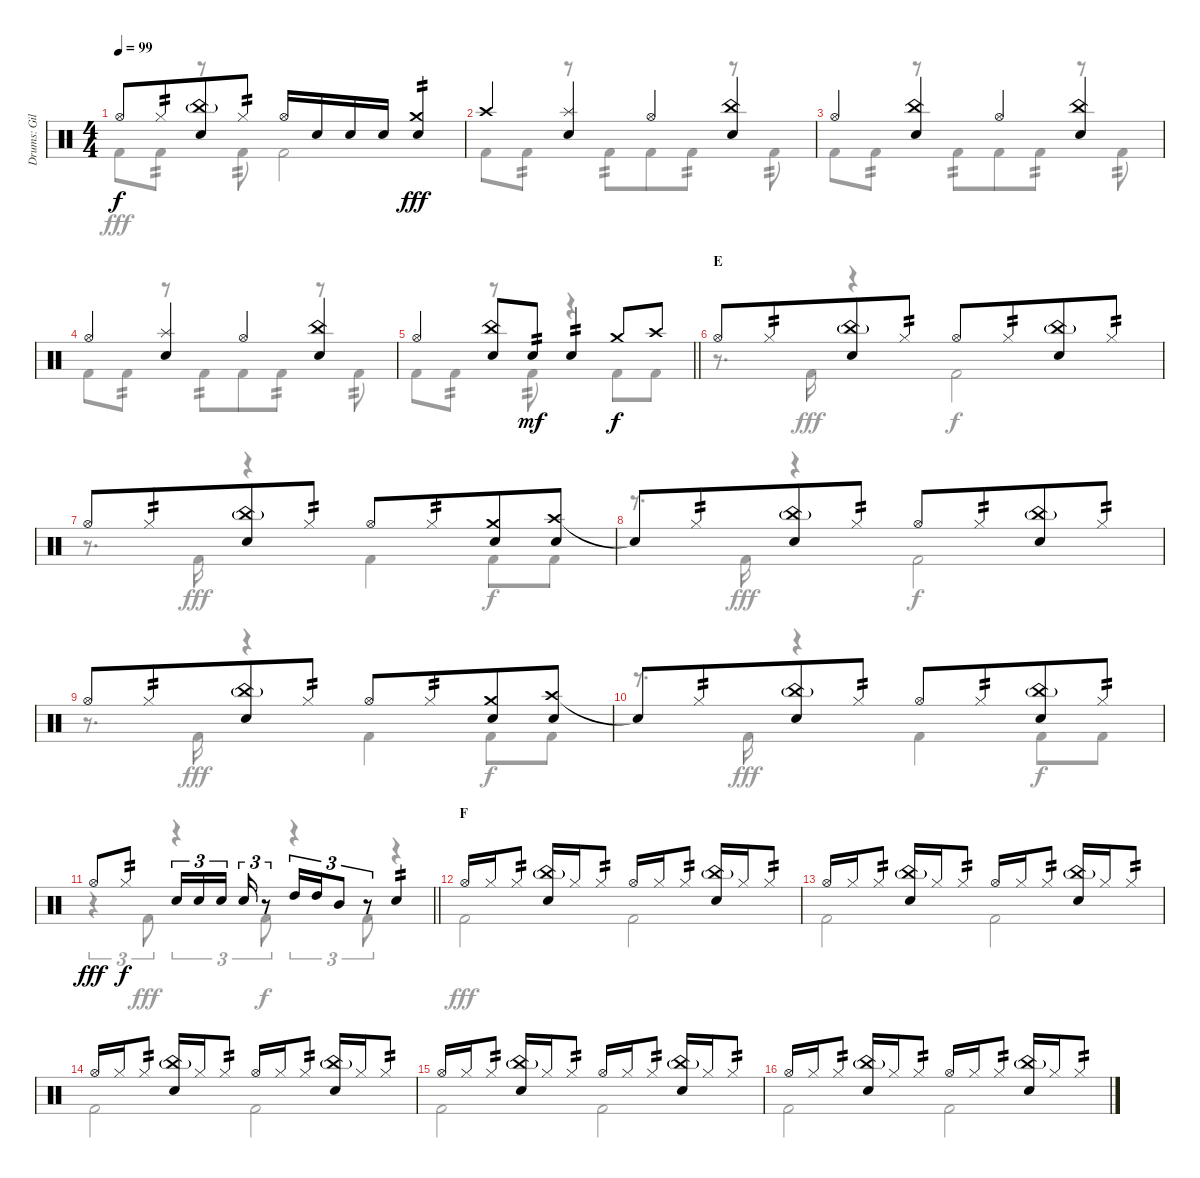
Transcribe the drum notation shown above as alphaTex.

\track ("Drums: Gil" "Drums: Gil") {instrument percussion}
\staff {score}
\articulation defaults
\voice
\ts (4 4)
\tempo 99
\clef neutral
\ks c "Hi-Hat (open)".8{dy f beam merge} "Hi-Hat (closed)".8{tp 2 beam merge}
("China (hit)"{g} "Snare (hit) 2").8{beam merge} "Hi-Hat (closed)".8{tp 2} "Hi-Hat (open)".16 "Snare (hit) 2".16 "Snare (hit) 2".16 "Snare (hit) 2".16 ("Crash medium (hit)" "Snare (hit) 2").4{tp 2 dy fff} |
"Crash high (hit)".4 ("Splash (hit)" "Snare (hit) 2").4 "Hi-Hat (open)".4 ("China (hit)" "Snare (hit) 2").4 |
"Hi-Hat (open)".4 ("China (hit)" "Snare (hit) 2").4 "Hi-Hat (open)".4 ("China (hit)" "Snare (hit) 2").4 |
"Hi-Hat (open)".4 ("Splash (hit)" "Snare (hit) 2").4 "Hi-Hat (open)".4 ("China (hit)" "Snare (hit) 2").4 |
\barLineRight lightlight "Hi-Hat (open)".4
("China (hit)" "Snare (hit) 2").8 "Snare (hit) 2".8{tp 2 dy mf beam merge} "Snare (hit) 2".4{tp 2} "Crash medium (hit)".8{dy f} "Crash high (hit)".8 |
\section ("" "E")
"Hi-Hat (open)".8 "Hi-Hat (closed)".8{tp 2 beam merge} ("China (hit)"{g} "Snare (hit) 2").8 "Hi-Hat (closed)".8{tp 2} "Hi-Hat (open)".8 "Hi-Hat (closed)".8{tp 2 beam merge} ("China (hit)"{g} "Snare (hit) 2").8 "Hi-Hat (closed)".8{tp 2} |
"Hi-Hat (open)".8 "Hi-Hat (closed)".8{tp 2 beam merge} ("China (hit)"{g} "Snare (hit) 2").8 "Hi-Hat (closed)".8{tp 2} "Hi-Hat (open)".8 "Hi-Hat (closed)".8{tp 2 beam merge} ("Crash medium (hit)" "Snare (hit) 2").8 ("Crash high (hit)" "Snare (hit) 2").8 |
"Snare (hit)"{t}.8 "Hi-Hat (closed)".8{tp 2 beam merge} ("China (hit)"{g} "Snare (hit) 2").8 "Hi-Hat (closed)".8{tp 2} "Hi-Hat (open)".8 "Hi-Hat (closed)".8{tp 2 beam merge} ("China (hit)"{g} "Snare (hit) 2").8 "Hi-Hat (closed)".8{tp 2} |
"Hi-Hat (open)".8 "Hi-Hat (closed)".8{tp 2 beam merge} ("China (hit)"{g} "Snare (hit) 2").8 "Hi-Hat (closed)".8{tp 2} "Hi-Hat (open)".8 "Hi-Hat (closed)".8{tp 2 beam merge} ("Crash medium (hit)" "Snare (hit) 2").8 ("Crash high (hit)" "Snare (hit) 2").8 |
"Snare (hit)"{t}.8 "Hi-Hat (closed)".8{tp 2 beam merge} ("China (hit)"{g} "Snare (hit) 2").8 "Hi-Hat (closed)".8{tp 2} "Hi-Hat (open)".8 "Hi-Hat (closed)".8{tp 2 beam merge} ("China (hit)"{g} "Snare (hit) 2").8 "Hi-Hat (closed)".8{tp 2} |
\barLineRight lightlight "Hi-Hat (open)".8{dy fff} "Hi-Hat (closed)".8{tp 2 dy f} "Electric Snare (hit)".16{tu (3 2)} "Electric Snare (hit)".16{tu (3 2)} "Electric Snare (hit)".16{tu (3 2) beam splitsecondary} "Electric Snare (hit)".16{tu (3 2)}
r.8{tu (3 2)} "High Tom (hit)".16{tu (3 2)} "High Tom (hit)".16{tu (3 2)} "Mid Tom (hit)".8{tu (3 2)} r.8{tu (3 2)} "Electric Snare (hit)".4{tp 2} |
\section ("" "F")
"Hi-Hat (open)".16 "Hi-Hat (closed)".16 "Hi-Hat (closed)".8{tp 2} ("China (hit)"{g} "Snare (hit) 2").16 "Hi-Hat (closed)".16 "Hi-Hat (closed)".8{tp 2} "Hi-Hat (open)".16 "Hi-Hat (closed)".16 "Hi-Hat (closed)".8{tp 2} ("China (hit)"{g} "Snare (hit) 2").16 "Hi-Hat (closed)".16 "Hi-Hat (closed)".8{tp 2} |
"Hi-Hat (open)".16 "Hi-Hat (closed)".16 "Hi-Hat (closed)".8{tp 2} ("China (hit)"{g} "Snare (hit) 2").16 "Hi-Hat (closed)".16 "Hi-Hat (closed)".8{tp 2} "Hi-Hat (open)".16 "Hi-Hat (closed)".16 "Hi-Hat (closed)".8{tp 2} ("China (hit)"{g} "Snare (hit) 2").16 "Hi-Hat (closed)".16 "Hi-Hat (closed)".8{tp 2} |
"Hi-Hat (open)".16 "Hi-Hat (closed)".16 "Hi-Hat (closed)".8{tp 2} ("China (hit)"{g} "Snare (hit) 2").16 "Hi-Hat (closed)".16 "Hi-Hat (closed)".8{tp 2} "Hi-Hat (open)".16 "Hi-Hat (closed)".16 "Hi-Hat (closed)".8{tp 2} ("China (hit)"{g} "Snare (hit) 2").16 "Hi-Hat (closed)".16 "Hi-Hat (closed)".8{tp 2} |
"Hi-Hat (open)".16 "Hi-Hat (closed)".16 "Hi-Hat (closed)".8{tp 2} ("China (hit)"{g} "Snare (hit) 2").16 "Hi-Hat (closed)".16 "Hi-Hat (closed)".8{tp 2} "Hi-Hat (open)".16 "Hi-Hat (closed)".16 "Hi-Hat (closed)".8{tp 2} ("China (hit)"{g} "Snare (hit) 2").16 "Hi-Hat (closed)".16 "Hi-Hat (closed)".8{tp 2} |
"Hi-Hat (open)".16 "Hi-Hat (closed)".16 "Hi-Hat (closed)".8{tp 2} ("China (hit)"{g} "Snare (hit) 2").16 "Hi-Hat (closed)".16 "Hi-Hat (closed)".8{tp 2} "Hi-Hat (open)".16 "Hi-Hat (closed)".16 "Hi-Hat (closed)".8{tp 2} ("China (hit)"{g} "Snare (hit) 2").16 "Hi-Hat (closed)".16 "Hi-Hat (closed)".8{tp 2}
\voice
\clef neutral
\ottava regular
\simile none
\ks c "Kick (hit) 2".8{dy fff} "Kick (hit) 2".8{tp 2}
r.8 "Kick (hit) 2".8{tp 2} "Kick (hit) 2".2 |
"Kick (hit) 2".8 "Kick (hit) 2".8{tp 2} r.8 "Kick (hit) 2".8{tp 2 beam merge} "Kick (hit) 2".8 "Kick (hit) 2".8{tp 2} r.8 "Kick (hit) 2".8{tp 2} |
"Kick (hit) 2".8 "Kick (hit) 2".8{tp 2} r.8 "Kick (hit) 2".8{tp 2 beam merge} "Kick (hit) 2".8 "Kick (hit) 2".8{tp 2} r.8 "Kick (hit) 2".8{tp 2} |
"Kick (hit) 2".8 "Kick (hit) 2".8{tp 2} r.8 "Kick (hit) 2".8{tp 2 beam merge} "Kick (hit) 2".8 "Kick (hit) 2".8{tp 2} r.8 "Kick (hit) 2".8{tp 2} |
\barLineRight lightlight "Kick (hit) 2".8 "Kick (hit) 2".8{tp 2}
r.8 "Kick (hit) 2".8{tp 2} r.4 "Kick (hit) 2".8{dy f} "Kick (hit) 2".8 |
r.8{d} "Kick (hit) 2".16{dy fff} r.4 "Kick (hit) 2".2{dy f} |
r.8{d} "Kick (hit) 2".16{dy fff} r.4 "Kick (hit) 2".4 "Kick (hit) 2".8{dy f} "Kick (hit) 2".8 |
r.8{d} "Kick (hit) 2".16{dy fff} r.4 "Kick (hit) 2".2{dy f} |
r.8{d} "Kick (hit) 2".16{dy fff} r.4 "Kick (hit) 2".4 "Kick (hit) 2".8{dy f} "Kick (hit) 2".8 |
r.8{d} "Kick (hit) 2".16{dy fff} r.4 "Kick (hit) 2".4 "Kick (hit) 2".8{dy f} "Kick (hit) 2".8 |
\barLineRight lightlight
r.4{tu (3 2)} "Kick (hit) 2".8{tu (3 2) dy fff} r.4{tu (3 2)} "Kick (hit) 2".8{tu (3 2) dy f} r.4{tu (3 2)} "Kick (hit) 2".8{tu (3 2)} r.4 |
"Kick (hit) 2".2{dy fff} "Kick (hit) 2".2 |
"Kick (hit) 2".2 "Kick (hit) 2".2 |
"Kick (hit) 2".2 "Kick (hit) 2".2 |
"Kick (hit) 2".2 "Kick (hit) 2".2 |
"Kick (hit) 2".2 "Kick (hit) 2".2
